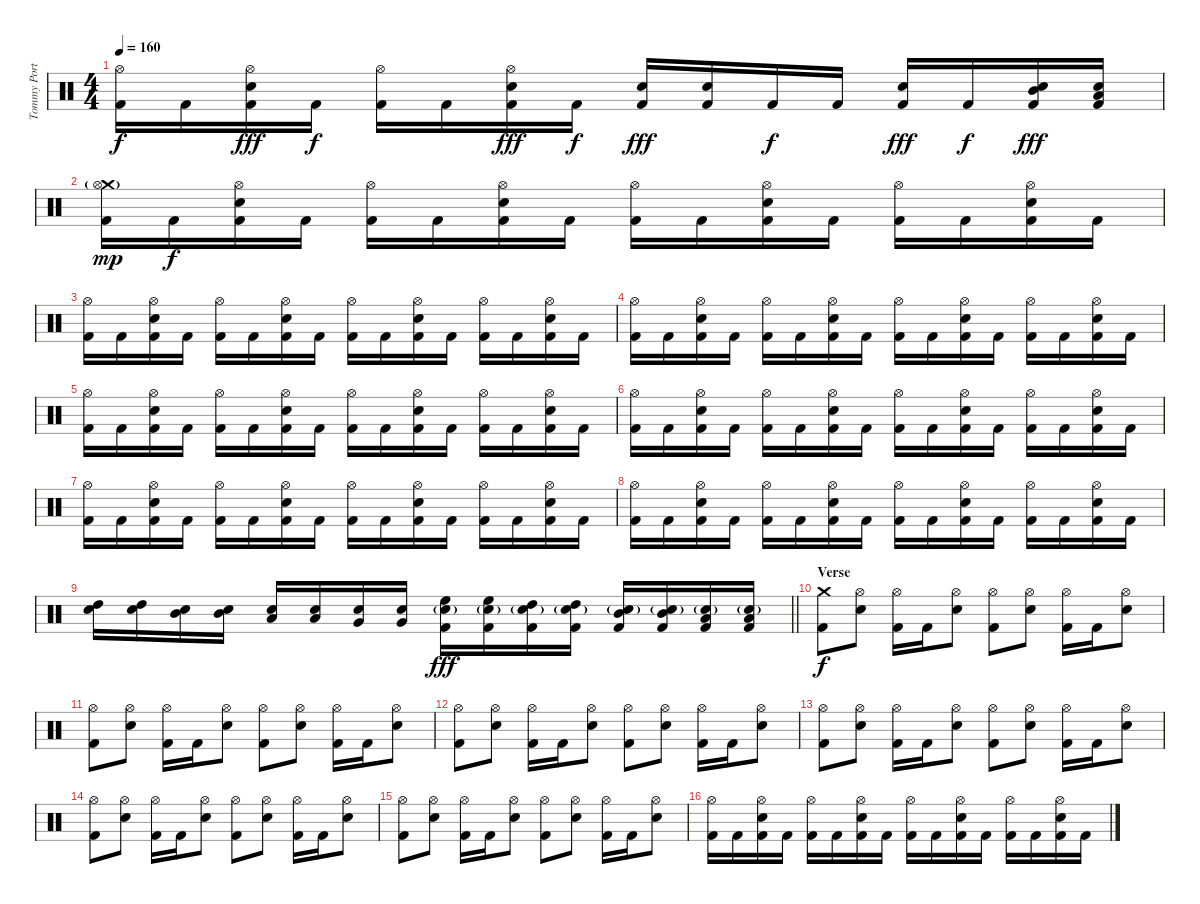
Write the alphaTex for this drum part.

\track ("Tommy Portino" "Tommy Port") {instrument percussion}
\staff {score}
\articulation defaults
\ts (4 4)
\tempo 160
\clef neutral
\ks c
("Hi-Hat (open)" "Kick (hit) 2").16{dy f} "Kick (hit) 2".16 ("Hi-Hat (open)" "Snare (hit) 2" "Kick (hit) 2").16{dy fff} "Kick (hit) 2".16{dy f} ("Hi-Hat (open)" "Kick (hit) 2").16 "Kick (hit) 2".16 ("Hi-Hat (open)" "Snare (hit) 2" "Kick (hit) 2").16{dy fff} "Kick (hit) 2".16{dy f} ("Snare (hit) 2" "Kick (hit) 2").16{dy fff} ("Snare (hit) 2" "Kick (hit) 2").16 "Kick (hit) 2".16{dy f} "Kick (hit) 2".16 ("Snare (hit) 2" "Kick (hit) 2").16{dy fff} "Kick (hit) 2".16{dy f} ("Mid Tom (hit)" "Snare (hit) 2" "Kick (hit) 2").16{dy fff} ("Low Tom (hit)" "Snare (hit) 2" "Kick (hit) 2").16 |
("Crash medium (hit)" "Hi-Hat (open)"{g} "Kick (hit) 2").16{dy mp} "Kick (hit) 2".16{dy f} ("Hi-Hat (open)" "Snare (hit) 2" "Kick (hit) 2").16 "Kick (hit) 2".16 ("Hi-Hat (open)" "Kick (hit) 2").16 "Kick (hit) 2".16 ("Hi-Hat (open)" "Snare (hit) 2" "Kick (hit) 2").16 "Kick (hit) 2".16 ("Hi-Hat (open)" "Kick (hit) 2").16 "Kick (hit) 2".16 ("Hi-Hat (open)" "Snare (hit) 2" "Kick (hit) 2").16 "Kick (hit) 2".16 ("Hi-Hat (open)" "Kick (hit) 2").16 "Kick (hit) 2".16 ("Hi-Hat (open)" "Snare (hit) 2" "Kick (hit) 2").16 "Kick (hit) 2".16 |
("Hi-Hat (open)" "Kick (hit) 2").16 "Kick (hit) 2".16 ("Hi-Hat (open)" "Snare (hit) 2" "Kick (hit) 2").16 "Kick (hit) 2".16 ("Hi-Hat (open)" "Kick (hit) 2").16 "Kick (hit) 2".16 ("Hi-Hat (open)" "Snare (hit) 2" "Kick (hit) 2").16 "Kick (hit) 2".16 ("Hi-Hat (open)" "Kick (hit) 2").16 "Kick (hit) 2".16 ("Hi-Hat (open)" "Snare (hit) 2" "Kick (hit) 2").16 "Kick (hit) 2".16 ("Hi-Hat (open)" "Kick (hit) 2").16 "Kick (hit) 2".16 ("Hi-Hat (open)" "Snare (hit) 2" "Kick (hit) 2").16 "Kick (hit) 2".16 |
("Hi-Hat (open)" "Kick (hit) 2").16 "Kick (hit) 2".16 ("Hi-Hat (open)" "Snare (hit) 2" "Kick (hit) 2").16 "Kick (hit) 2".16 ("Hi-Hat (open)" "Kick (hit) 2").16 "Kick (hit) 2".16 ("Hi-Hat (open)" "Snare (hit) 2" "Kick (hit) 2").16 "Kick (hit) 2".16 ("Hi-Hat (open)" "Kick (hit) 2").16 "Kick (hit) 2".16 ("Hi-Hat (open)" "Snare (hit) 2" "Kick (hit) 2").16 "Kick (hit) 2".16 ("Hi-Hat (open)" "Kick (hit) 2").16 "Kick (hit) 2".16 ("Hi-Hat (open)" "Snare (hit) 2" "Kick (hit) 2").16 "Kick (hit) 2".16 |
("Hi-Hat (open)" "Kick (hit) 2").16 "Kick (hit) 2".16 ("Hi-Hat (open)" "Snare (hit) 2" "Kick (hit) 2").16 "Kick (hit) 2".16 ("Hi-Hat (open)" "Kick (hit) 2").16 "Kick (hit) 2".16 ("Hi-Hat (open)" "Snare (hit) 2" "Kick (hit) 2").16 "Kick (hit) 2".16 ("Hi-Hat (open)" "Kick (hit) 2").16 "Kick (hit) 2".16 ("Hi-Hat (open)" "Snare (hit) 2" "Kick (hit) 2").16 "Kick (hit) 2".16 ("Hi-Hat (open)" "Kick (hit) 2").16 "Kick (hit) 2".16 ("Hi-Hat (open)" "Snare (hit) 2" "Kick (hit) 2").16 "Kick (hit) 2".16 |
("Hi-Hat (open)" "Kick (hit) 2").16 "Kick (hit) 2".16 ("Hi-Hat (open)" "Snare (hit) 2" "Kick (hit) 2").16 "Kick (hit) 2".16 ("Hi-Hat (open)" "Kick (hit) 2").16 "Kick (hit) 2".16 ("Hi-Hat (open)" "Snare (hit) 2" "Kick (hit) 2").16 "Kick (hit) 2".16 ("Hi-Hat (open)" "Kick (hit) 2").16 "Kick (hit) 2".16 ("Hi-Hat (open)" "Snare (hit) 2" "Kick (hit) 2").16 "Kick (hit) 2".16 ("Hi-Hat (open)" "Kick (hit) 2").16 "Kick (hit) 2".16 ("Hi-Hat (open)" "Snare (hit) 2" "Kick (hit) 2").16 "Kick (hit) 2".16 |
("Hi-Hat (open)" "Kick (hit) 2").16 "Kick (hit) 2".16 ("Hi-Hat (open)" "Snare (hit) 2" "Kick (hit) 2").16 "Kick (hit) 2".16 ("Hi-Hat (open)" "Kick (hit) 2").16 "Kick (hit) 2".16 ("Hi-Hat (open)" "Snare (hit) 2" "Kick (hit) 2").16 "Kick (hit) 2".16 ("Hi-Hat (open)" "Kick (hit) 2").16 "Kick (hit) 2".16 ("Hi-Hat (open)" "Snare (hit) 2" "Kick (hit) 2").16 "Kick (hit) 2".16 ("Hi-Hat (open)" "Kick (hit) 2").16 "Kick (hit) 2".16 ("Hi-Hat (open)" "Snare (hit) 2" "Kick (hit) 2").16 "Kick (hit) 2".16 |
("Hi-Hat (open)" "Kick (hit) 2").16 "Kick (hit) 2".16 ("Hi-Hat (open)" "Snare (hit) 2" "Kick (hit) 2").16 "Kick (hit) 2".16 ("Hi-Hat (open)" "Kick (hit) 2").16 "Kick (hit) 2".16 ("Hi-Hat (open)" "Snare (hit) 2" "Kick (hit) 2").16 "Kick (hit) 2".16 ("Hi-Hat (open)" "Kick (hit) 2").16 "Kick (hit) 2".16 ("Hi-Hat (open)" "Snare (hit) 2" "Kick (hit) 2").16 "Kick (hit) 2".16 ("Hi-Hat (open)" "Kick (hit) 2").16 "Kick (hit) 2".16 ("Hi-Hat (open)" "Snare (hit) 2" "Kick (hit) 2").16 "Kick (hit) 2".16 |
\barLineRight lightlight
("High Tom (hit)" "Snare (hit) 2").16 ("High Tom (hit)" "Snare (hit) 2").16 ("Mid Tom (hit)" "Snare (hit) 2").16 ("Mid Tom (hit)" "Snare (hit) 2").16 ("Low Tom (hit)" "Snare (hit) 2").16 ("Low Tom (hit)" "Snare (hit) 2").16 ("Very Low Tom (hit)" "Snare (hit) 2").16 ("Very Low Tom (hit)" "Snare (hit) 2").16 ("High Floor Tom (hit)" "Snare (hit) 2"{g} "Kick (hit) 2").16{dy fff} ("High Floor Tom (hit)" "Snare (hit) 2"{g} "Kick (hit) 2").16 ("High Tom (hit)" "Snare (hit) 2"{g} "Kick (hit) 2").16 ("High Tom (hit)" "Snare (hit) 2"{g} "Kick (hit) 2").16 ("Mid Tom (hit)" "Snare (hit) 2"{g} "Kick (hit) 2").16 ("Mid Tom (hit)" "Snare (hit) 2"{g} "Kick (hit) 2").16 ("Low Tom (hit)" "Snare (hit) 2"{g} "Kick (hit) 2").16 ("Low Tom (hit)" "Snare (hit) 2"{g} "Kick (hit) 2").16 |
\section ("" "Verse")
("Crash medium (hit)" "Kick (hit) 2").8{dy f} ("Hi-Hat (open)" "Snare (hit) 2").8 ("Hi-Hat (open)" "Kick (hit) 2").16 "Kick (hit) 2".16 ("Hi-Hat (open)" "Snare (hit) 2").8 ("Hi-Hat (open)" "Kick (hit) 2").8 ("Hi-Hat (open)" "Snare (hit) 2").8 ("Hi-Hat (open)" "Kick (hit) 2").16 "Kick (hit) 2".16 ("Hi-Hat (open)" "Snare (hit) 2").8 |
("Hi-Hat (open)" "Kick (hit) 2").8 ("Hi-Hat (open)" "Snare (hit) 2").8 ("Hi-Hat (open)" "Kick (hit) 2").16 "Kick (hit) 2".16 ("Hi-Hat (open)" "Snare (hit) 2").8 ("Hi-Hat (open)" "Kick (hit) 2").8 ("Hi-Hat (open)" "Snare (hit) 2").8 ("Hi-Hat (open)" "Kick (hit) 2").16 "Kick (hit) 2".16 ("Hi-Hat (open)" "Snare (hit) 2").8 |
("Hi-Hat (open)" "Kick (hit) 2").8 ("Hi-Hat (open)" "Snare (hit) 2").8 ("Hi-Hat (open)" "Kick (hit) 2").16 "Kick (hit) 2".16 ("Hi-Hat (open)" "Snare (hit) 2").8 ("Hi-Hat (open)" "Kick (hit) 2").8 ("Hi-Hat (open)" "Snare (hit) 2").8 ("Hi-Hat (open)" "Kick (hit) 2").16 "Kick (hit) 2".16 ("Hi-Hat (open)" "Snare (hit) 2").8 |
("Hi-Hat (open)" "Kick (hit) 2").8 ("Hi-Hat (open)" "Snare (hit) 2").8 ("Hi-Hat (open)" "Kick (hit) 2").16 "Kick (hit) 2".16 ("Hi-Hat (open)" "Snare (hit) 2").8 ("Hi-Hat (open)" "Kick (hit) 2").8 ("Hi-Hat (open)" "Snare (hit) 2").8 ("Hi-Hat (open)" "Kick (hit) 2").16 "Kick (hit) 2".16 ("Hi-Hat (open)" "Snare (hit) 2").8 |
("Hi-Hat (open)" "Kick (hit) 2").8 ("Hi-Hat (open)" "Snare (hit) 2").8 ("Hi-Hat (open)" "Kick (hit) 2").16 "Kick (hit) 2".16 ("Hi-Hat (open)" "Snare (hit) 2").8 ("Hi-Hat (open)" "Kick (hit) 2").8 ("Hi-Hat (open)" "Snare (hit) 2").8 ("Hi-Hat (open)" "Kick (hit) 2").16 "Kick (hit) 2".16 ("Hi-Hat (open)" "Snare (hit) 2").8 |
("Hi-Hat (open)" "Kick (hit) 2").8 ("Hi-Hat (open)" "Snare (hit) 2").8 ("Hi-Hat (open)" "Kick (hit) 2").16 "Kick (hit) 2".16 ("Hi-Hat (open)" "Snare (hit) 2").8 ("Hi-Hat (open)" "Kick (hit) 2").8 ("Hi-Hat (open)" "Snare (hit) 2").8 ("Hi-Hat (open)" "Kick (hit) 2").16 "Kick (hit) 2".16 ("Hi-Hat (open)" "Snare (hit) 2").8 |
("Hi-Hat (open)" "Kick (hit) 2").16 "Kick (hit) 2".16 ("Hi-Hat (open)" "Snare (hit) 2" "Kick (hit) 2").16 "Kick (hit) 2".16 ("Hi-Hat (open)" "Kick (hit) 2").16 "Kick (hit) 2".16 ("Hi-Hat (open)" "Snare (hit) 2" "Kick (hit) 2").16 "Kick (hit) 2".16 ("Hi-Hat (open)" "Kick (hit) 2").16 "Kick (hit) 2".16 ("Hi-Hat (open)" "Snare (hit) 2" "Kick (hit) 2").16 "Kick (hit) 2".16 ("Hi-Hat (open)" "Kick (hit) 2").16 "Kick (hit) 2".16 ("Hi-Hat (open)" "Snare (hit) 2" "Kick (hit) 2").16 "Kick (hit) 2".16
